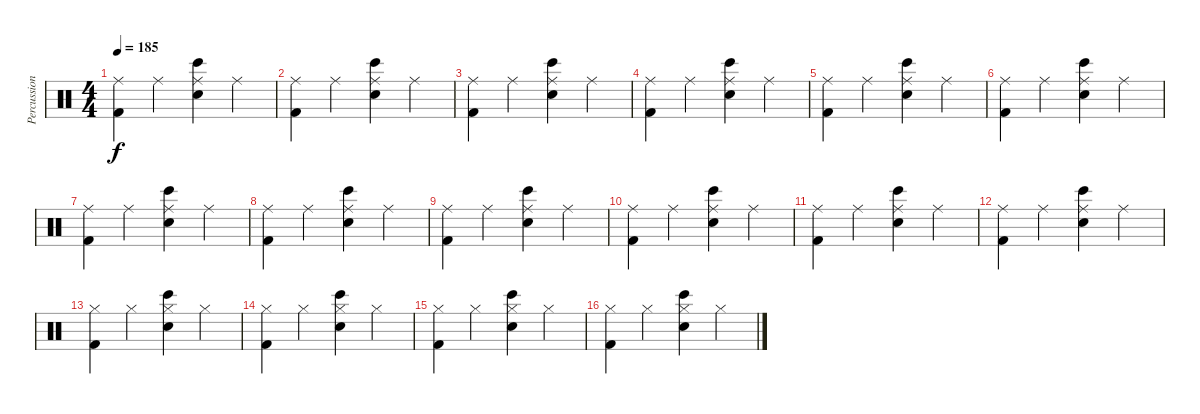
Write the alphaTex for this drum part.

\track ("Percussion" "Percussion") {instrument percussion}
\staff {score}
\articulation defaults
\ts (4 4)
\tempo 185
\clef neutral
\ks c
("Ride (middle)" "Kick (hit) 2").4{dy f} "Ride (middle)".4 ("Bongo High (hit)" "Electric Snare (hit)" "Ride (middle)").4 "Ride (middle)".4 |
("Ride (middle)" "Kick (hit) 2").4 "Ride (middle)".4 ("Bongo High (hit)" "Electric Snare (hit)" "Ride (middle)").4 "Ride (middle)".4 |
("Ride (middle)" "Kick (hit) 2").4 "Ride (middle)".4 ("Bongo High (hit)" "Electric Snare (hit)" "Ride (middle)").4 "Ride (middle)".4 |
("Ride (middle)" "Kick (hit) 2").4 "Ride (middle)".4 ("Bongo High (hit)" "Electric Snare (hit)" "Ride (middle)").4 "Ride (middle)".4 |
("Ride (middle)" "Kick (hit) 2").4 "Ride (middle)".4 ("Bongo High (hit)" "Electric Snare (hit)" "Ride (middle)").4 "Ride (middle)".4 |
("Ride (middle)" "Kick (hit) 2").4 "Ride (middle)".4 ("Bongo High (hit)" "Electric Snare (hit)" "Ride (middle)").4 "Ride (middle)".4 |
("Ride (middle)" "Kick (hit) 2").4 "Ride (middle)".4 ("Bongo High (hit)" "Electric Snare (hit)" "Ride (middle)").4 "Ride (middle)".4 |
("Ride (middle)" "Kick (hit) 2").4 "Ride (middle)".4 ("Bongo High (hit)" "Electric Snare (hit)" "Ride (middle)").4 "Ride (middle)".4 |
("Ride (middle)" "Kick (hit) 2").4 "Ride (middle)".4 ("Bongo High (hit)" "Electric Snare (hit)" "Ride (middle)").4 "Ride (middle)".4 |
("Ride (middle)" "Kick (hit) 2").4 "Ride (middle)".4 ("Bongo High (hit)" "Electric Snare (hit)" "Ride (middle)").4 "Ride (middle)".4 |
("Ride (middle)" "Kick (hit) 2").4 "Ride (middle)".4 ("Bongo High (hit)" "Electric Snare (hit)" "Ride (middle)").4 "Ride (middle)".4 |
("Ride (middle)" "Kick (hit) 2").4 "Ride (middle)".4 ("Bongo High (hit)" "Electric Snare (hit)" "Ride (middle)").4 "Ride (middle)".4 |
("Hi-Hat (closed)" "Kick (hit) 2").4 "Hi-Hat (closed)".4 ("Bongo High (hit)" "Electric Snare (hit)" "Hi-Hat (closed)").4 "Hi-Hat (closed)".4 |
("Hi-Hat (closed)" "Kick (hit) 2").4 "Hi-Hat (closed)".4 ("Bongo High (hit)" "Electric Snare (hit)" "Hi-Hat (closed)").4 "Hi-Hat (closed)".4 |
("Hi-Hat (closed)" "Kick (hit) 2").4 "Hi-Hat (closed)".4 ("Bongo High (hit)" "Electric Snare (hit)" "Hi-Hat (closed)").4 "Hi-Hat (closed)".4 |
("Hi-Hat (closed)" "Kick (hit) 2").4 "Hi-Hat (closed)".4 ("Bongo High (hit)" "Electric Snare (hit)" "Hi-Hat (closed)").4 "Hi-Hat (closed)".4
